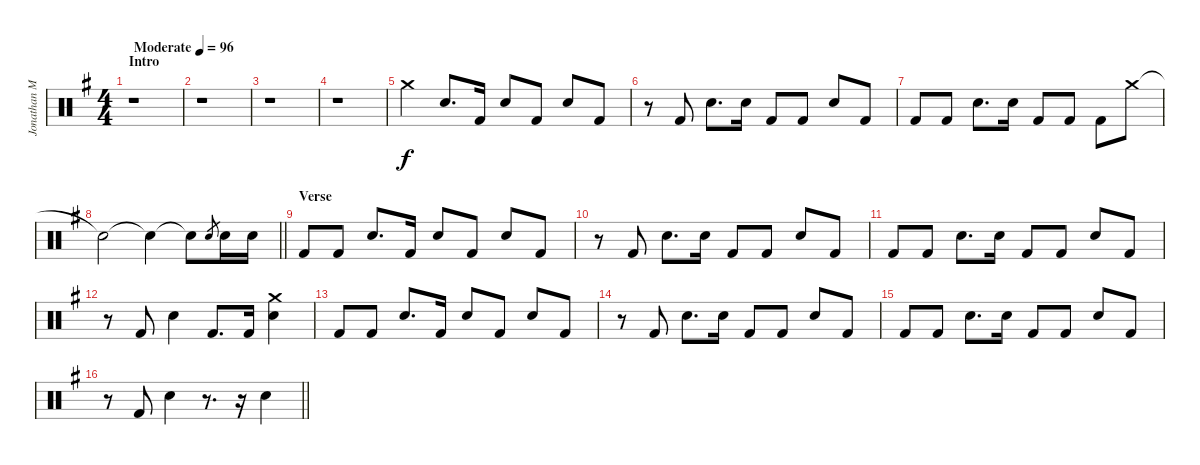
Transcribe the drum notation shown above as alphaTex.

\track ("Jonathan Mover (Drums)" "Jonathan M") {instrument percussion}
\staff {score}
\articulation defaults
\ts (4 4)
\section ("" "Intro")
\tempo (96 "Moderate")
\clef neutral
\ks g
r.1{dy f} |
r.1 |
r.1 |
r.1 |
"Crash medium (hit)".4 "Electric Snare (hit)".8{d} "Kick (hit) 2".16 "Electric Snare (hit)".8 "Kick (hit) 2".8 "Electric Snare (hit)".8 "Kick (hit) 2".8 |
r.8 "Kick (hit) 2".8 "Electric Snare (hit)".8{d} "Electric Snare (hit)".16 "Kick (hit) 2".8 "Kick (hit) 2".8 "Electric Snare (hit)".8 "Kick (hit) 2".8 |
"Kick (hit) 2".8 "Kick (hit) 2".8 "Electric Snare (hit)".8{d} "Electric Snare (hit)".16 "Kick (hit) 2".8 "Kick (hit) 2".8 "Kick (hit) 2".8 "Crash medium (hit)".8 |
\barLineRight lightlight "Snare (hit)"{t}.2 "Snare (hit)"{t}.4 "Snare (hit)"{t}.8 "Electric Snare (hit)".8{gr} "Electric Snare (hit)".16 "Electric Snare (hit)".16
|
\section ("" "Verse")
"Kick (hit) 2".8 "Kick (hit) 2".8 "Electric Snare (hit)".8{d} "Kick (hit) 2".16 "Electric Snare (hit)".8 "Kick (hit) 2".8 "Electric Snare (hit)".8 "Kick (hit) 2".8 |
r.8 "Kick (hit) 2".8 "Electric Snare (hit)".8{d} "Electric Snare (hit)".16 "Kick (hit) 2".8 "Kick (hit) 2".8 "Electric Snare (hit)".8 "Kick (hit) 2".8 |
"Kick (hit) 2".8 "Kick (hit) 2".8 "Electric Snare (hit)".8{d} "Electric Snare (hit)".16 "Kick (hit) 2".8 "Kick (hit) 2".8 "Electric Snare (hit)".8 "Kick (hit) 2".8 |
r.8 "Kick (hit) 2".8 "Electric Snare (hit)".4 "Kick (hit) 2".8{d} "Kick (hit) 2".16 ("Electric Snare (hit)" "Crash medium (hit)").4 |
"Kick (hit) 2".8 "Kick (hit) 2".8 "Electric Snare (hit)".8{d} "Kick (hit) 2".16 "Electric Snare (hit)".8 "Kick (hit) 2".8 "Electric Snare (hit)".8 "Kick (hit) 2".8 |
r.8 "Kick (hit) 2".8 "Electric Snare (hit)".8{d} "Electric Snare (hit)".16 "Kick (hit) 2".8 "Kick (hit) 2".8 "Electric Snare (hit)".8 "Kick (hit) 2".8 |
"Kick (hit) 2".8 "Kick (hit) 2".8 "Electric Snare (hit)".8{d} "Electric Snare (hit)".16 "Kick (hit) 2".8 "Kick (hit) 2".8 "Electric Snare (hit)".8 "Kick (hit) 2".8 |
\barLineRight lightlight
r.8 "Kick (hit) 2".8 "Electric Snare (hit)".4 r.8{d} r.16 "Electric Snare (hit)".4
